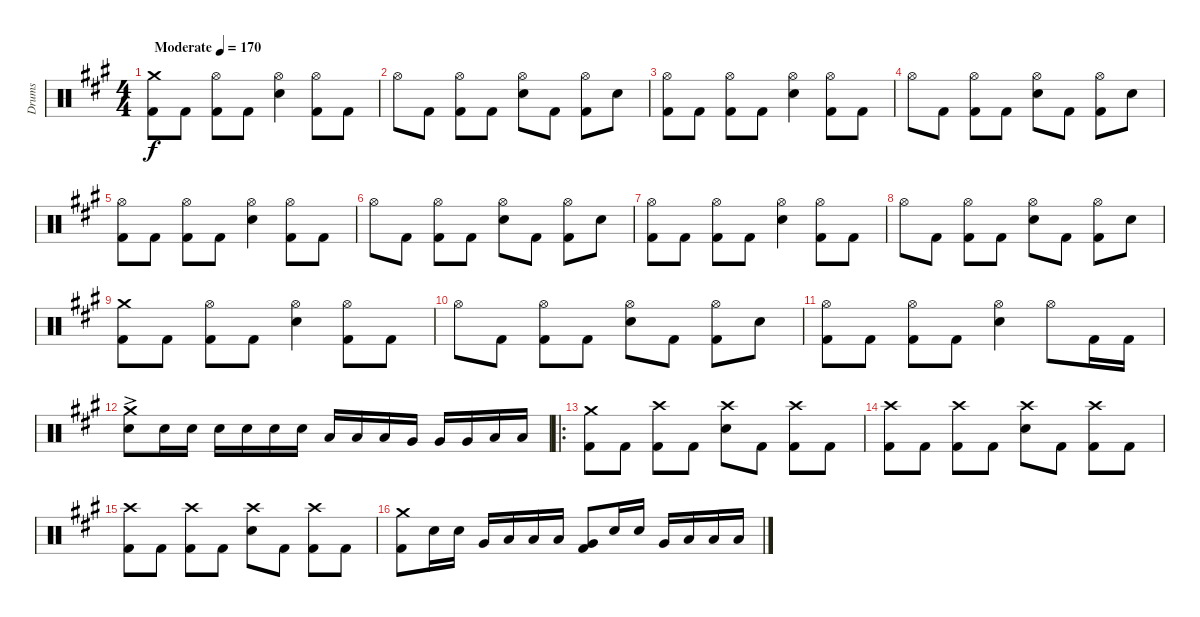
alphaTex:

\track ("Drums" "Drums") {instrument percussion}
\staff {score}
\articulation defaults
\ts (4 4)
\tempo (170 "Moderate")
\clef neutral
\ks a
("Crash medium (hit)" "Kick (hit) 2").8{dy f} "Kick (hit) 2".8 ("Hi-Hat (open)" "Kick (hit) 2").8 "Kick (hit) 2".8 ("Hi-Hat (open)" "Electric Snare (hit)").4 ("Hi-Hat (open)" "Kick (hit) 2").8 "Kick (hit) 2".8 |
"Hi-Hat (open)".8 "Kick (hit) 2".8 ("Hi-Hat (open)" "Kick (hit) 2").8 "Kick (hit) 2".8 ("Hi-Hat (open)" "Electric Snare (hit)").8 "Kick (hit) 2".8 ("Hi-Hat (open)" "Kick (hit) 2").8 "Electric Snare (hit)".8 |
("Hi-Hat (open)" "Kick (hit) 2").8 "Kick (hit) 2".8 ("Hi-Hat (open)" "Kick (hit) 2").8 "Kick (hit) 2".8 ("Hi-Hat (open)" "Electric Snare (hit)").4 ("Hi-Hat (open)" "Kick (hit) 2").8 "Kick (hit) 2".8 |
"Hi-Hat (open)".8 "Kick (hit) 2".8 ("Hi-Hat (open)" "Kick (hit) 2").8 "Kick (hit) 2".8 ("Hi-Hat (open)" "Electric Snare (hit)").8 "Kick (hit) 2".8 ("Hi-Hat (open)" "Kick (hit) 2").8 "Electric Snare (hit)".8 |
("Hi-Hat (open)" "Kick (hit) 2").8 "Kick (hit) 2".8 ("Hi-Hat (open)" "Kick (hit) 2").8 "Kick (hit) 2".8 ("Hi-Hat (open)" "Electric Snare (hit)").4 ("Hi-Hat (open)" "Kick (hit) 2").8 "Kick (hit) 2".8 |
"Hi-Hat (open)".8 "Kick (hit) 2".8 ("Hi-Hat (open)" "Kick (hit) 2").8 "Kick (hit) 2".8 ("Hi-Hat (open)" "Electric Snare (hit)").8 "Kick (hit) 2".8 ("Hi-Hat (open)" "Kick (hit) 2").8 "Electric Snare (hit)".8 |
("Hi-Hat (open)" "Kick (hit) 2").8 "Kick (hit) 2".8 ("Hi-Hat (open)" "Kick (hit) 2").8 "Kick (hit) 2".8 ("Hi-Hat (open)" "Electric Snare (hit)").4 ("Hi-Hat (open)" "Kick (hit) 2").8 "Kick (hit) 2".8 |
"Hi-Hat (open)".8 "Kick (hit) 2".8 ("Hi-Hat (open)" "Kick (hit) 2").8 "Kick (hit) 2".8 ("Hi-Hat (open)" "Electric Snare (hit)").8 "Kick (hit) 2".8 ("Hi-Hat (open)" "Kick (hit) 2").8 "Electric Snare (hit)".8 |
("Crash medium (hit)" "Kick (hit) 2").8 "Kick (hit) 2".8 ("Hi-Hat (open)" "Kick (hit) 2").8 "Kick (hit) 2".8 ("Hi-Hat (open)" "Electric Snare (hit)").4 ("Hi-Hat (open)" "Kick (hit) 2").8 "Kick (hit) 2".8 |
"Hi-Hat (open)".8 "Kick (hit) 2".8 ("Hi-Hat (open)" "Kick (hit) 2").8 "Kick (hit) 2".8 ("Hi-Hat (open)" "Electric Snare (hit)").8 "Kick (hit) 2".8 ("Hi-Hat (open)" "Kick (hit) 2").8 "Electric Snare (hit)".8 |
("Hi-Hat (open)" "Kick (hit) 2").8 "Kick (hit) 2".8 ("Hi-Hat (open)" "Kick (hit) 2").8 "Kick (hit) 2".8 ("Hi-Hat (open)" "Electric Snare (hit)").4 "Hi-Hat (open)".8 "Kick (hit) 2".16 "Kick (hit) 2".16 |
("Crash medium (hit)" "Electric Snare (hit)"{ac}).8 "Electric Snare (hit)".16 "Electric Snare (hit)".16 "Electric Snare (hit)".16 "Electric Snare (hit)".16 "Electric Snare (hit)".16 "Electric Snare (hit)".16 "Low Tom (hit)".16 "Low Tom (hit)".16 "Low Tom (hit)".16 "Very Low Tom (hit)".16 "Very Low Tom (hit)".16 "Very Low Tom (hit)".16 "Low Floor Tom (hit)".16 "Low Floor Tom (hit)".16 |
\ro
("Crash medium (hit)" "Kick (hit) 2").8 "Kick (hit) 2".8 ("Crash high (hit)" "Kick (hit) 2").8 "Kick (hit) 2".8 ("Crash high (hit)" "Electric Snare (hit)").8 "Kick (hit) 2".8 ("Crash high (hit)" "Kick (hit) 2").8 "Kick (hit) 2".8 |
("Crash high (hit)" "Kick (hit) 2").8 "Kick (hit) 2".8 ("Crash high (hit)" "Kick (hit) 2").8 "Kick (hit) 2".8 ("Crash high (hit)" "Electric Snare (hit)").8 "Kick (hit) 2".8 ("Crash high (hit)" "Kick (hit) 2").8 "Kick (hit) 2".8 |
("Crash high (hit)" "Kick (hit) 2").8 "Kick (hit) 2".8 ("Crash high (hit)" "Kick (hit) 2").8 "Kick (hit) 2".8 ("Crash high (hit)" "Electric Snare (hit)").8 "Kick (hit) 2".8 ("Crash high (hit)" "Kick (hit) 2").8 "Kick (hit) 2".8 |
("Crash medium (hit)" "Kick (hit) 2").8 "Electric Snare (hit)".16 "Electric Snare (hit)".16 "Very Low Tom (hit)".16 "Low Floor Tom (hit)".16 "Low Floor Tom (hit)".16 "Low Floor Tom (hit)".16 ("Very Low Tom (hit)" "Kick (hit) 2").8 "Electric Snare (hit)".16 "Electric Snare (hit)".16 "Very Low Tom (hit)".16 "Low Floor Tom (hit)".16 "Low Floor Tom (hit)".16 "Low Floor Tom (hit)".16
